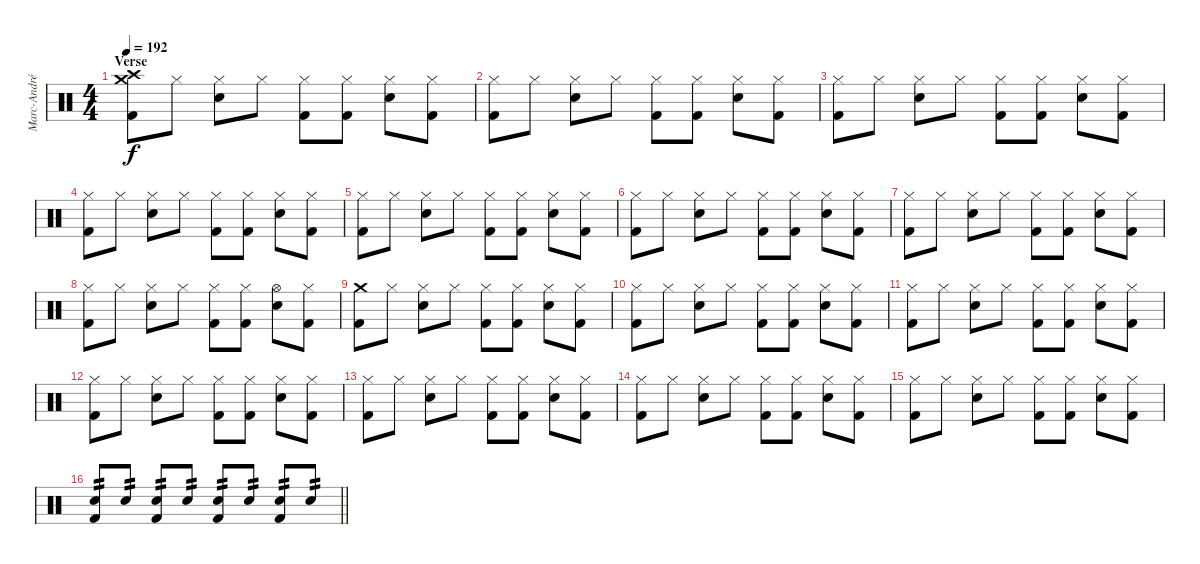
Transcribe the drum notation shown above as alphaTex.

\track ("Marc-André Barabé" "Marc-André") {instrument percussion}
\staff {score}
\articulation defaults
\ts (4 4)
\section ("" "Verse")
\tempo 192
\clef neutral
\ks c
("Crash high (hit)" "Crash medium (hit)" "Kick (hit) 2").8{dy f} "Hi-Hat (closed)".8 ("Hi-Hat (closed)" "Electric Snare (hit)").8 "Hi-Hat (closed)".8 ("Hi-Hat (closed)" "Kick (hit) 2").8 ("Hi-Hat (closed)" "Kick (hit) 2").8 ("Hi-Hat (closed)" "Electric Snare (hit)").8 ("Hi-Hat (closed)" "Kick (hit) 2").8 |
("Hi-Hat (closed)" "Kick (hit) 2").8 "Hi-Hat (closed)".8 ("Hi-Hat (closed)" "Electric Snare (hit)").8 "Hi-Hat (closed)".8 ("Hi-Hat (closed)" "Kick (hit) 2").8 ("Hi-Hat (closed)" "Kick (hit) 2").8 ("Hi-Hat (closed)" "Electric Snare (hit)").8 ("Hi-Hat (closed)" "Kick (hit) 2").8 |
("Hi-Hat (closed)" "Kick (hit) 2").8 "Hi-Hat (closed)".8 ("Hi-Hat (closed)" "Electric Snare (hit)").8 "Hi-Hat (closed)".8 ("Hi-Hat (closed)" "Kick (hit) 2").8 ("Hi-Hat (closed)" "Kick (hit) 2").8 ("Hi-Hat (closed)" "Electric Snare (hit)").8 ("Hi-Hat (closed)" "Kick (hit) 2").8 |
("Hi-Hat (closed)" "Kick (hit) 2").8 "Hi-Hat (closed)".8 ("Hi-Hat (closed)" "Electric Snare (hit)").8 "Hi-Hat (closed)".8 ("Hi-Hat (closed)" "Kick (hit) 2").8 ("Hi-Hat (closed)" "Kick (hit) 2").8 ("Hi-Hat (closed)" "Electric Snare (hit)").8 ("Hi-Hat (closed)" "Kick (hit) 2").8 |
("Hi-Hat (closed)" "Kick (hit) 2").8 "Hi-Hat (closed)".8 ("Hi-Hat (closed)" "Electric Snare (hit)").8 "Hi-Hat (closed)".8 ("Hi-Hat (closed)" "Kick (hit) 2").8 ("Hi-Hat (closed)" "Kick (hit) 2").8 ("Hi-Hat (closed)" "Electric Snare (hit)").8 ("Hi-Hat (closed)" "Kick (hit) 2").8 |
("Hi-Hat (closed)" "Kick (hit) 2").8 "Hi-Hat (closed)".8 ("Hi-Hat (closed)" "Electric Snare (hit)").8 "Hi-Hat (closed)".8 ("Hi-Hat (closed)" "Kick (hit) 2").8 ("Hi-Hat (closed)" "Kick (hit) 2").8 ("Hi-Hat (closed)" "Electric Snare (hit)").8 ("Hi-Hat (closed)" "Kick (hit) 2").8 |
("Hi-Hat (closed)" "Kick (hit) 2").8 "Hi-Hat (closed)".8 ("Hi-Hat (closed)" "Electric Snare (hit)").8 "Hi-Hat (closed)".8 ("Hi-Hat (closed)" "Kick (hit) 2").8 ("Hi-Hat (closed)" "Kick (hit) 2").8 ("Hi-Hat (closed)" "Electric Snare (hit)").8 ("Hi-Hat (closed)" "Kick (hit) 2").8 |
("Hi-Hat (closed)" "Kick (hit) 2").8 "Hi-Hat (closed)".8 ("Hi-Hat (closed)" "Electric Snare (hit)").8 "Hi-Hat (closed)".8 ("Hi-Hat (closed)" "Kick (hit) 2").8 ("Hi-Hat (closed)" "Kick (hit) 2").8 ("Hi-Hat (open)" "Electric Snare (hit)").8 ("Hi-Hat (closed)" "Kick (hit) 2").8 |
("Crash medium (hit)" "Kick (hit) 2").8 "Hi-Hat (closed)".8 ("Hi-Hat (closed)" "Electric Snare (hit)").8 "Hi-Hat (closed)".8 ("Hi-Hat (closed)" "Kick (hit) 2").8 ("Hi-Hat (closed)" "Kick (hit) 2").8 ("Hi-Hat (closed)" "Electric Snare (hit)").8 ("Hi-Hat (closed)" "Kick (hit) 2").8 |
("Hi-Hat (closed)" "Kick (hit) 2").8 "Hi-Hat (closed)".8 ("Hi-Hat (closed)" "Electric Snare (hit)").8 "Hi-Hat (closed)".8 ("Hi-Hat (closed)" "Kick (hit) 2").8 ("Hi-Hat (closed)" "Kick (hit) 2").8 ("Hi-Hat (closed)" "Electric Snare (hit)").8 ("Hi-Hat (closed)" "Kick (hit) 2").8 |
("Hi-Hat (closed)" "Kick (hit) 2").8 "Hi-Hat (closed)".8 ("Hi-Hat (closed)" "Electric Snare (hit)").8 "Hi-Hat (closed)".8 ("Hi-Hat (closed)" "Kick (hit) 2").8 ("Hi-Hat (closed)" "Kick (hit) 2").8 ("Hi-Hat (closed)" "Electric Snare (hit)").8 ("Hi-Hat (closed)" "Kick (hit) 2").8 |
("Hi-Hat (closed)" "Kick (hit) 2").8 "Hi-Hat (closed)".8 ("Hi-Hat (closed)" "Electric Snare (hit)").8 "Hi-Hat (closed)".8 ("Hi-Hat (closed)" "Kick (hit) 2").8 ("Hi-Hat (closed)" "Kick (hit) 2").8 ("Hi-Hat (closed)" "Electric Snare (hit)").8 ("Hi-Hat (closed)" "Kick (hit) 2").8 |
("Hi-Hat (closed)" "Kick (hit) 2").8 "Hi-Hat (closed)".8 ("Hi-Hat (closed)" "Electric Snare (hit)").8 "Hi-Hat (closed)".8 ("Hi-Hat (closed)" "Kick (hit) 2").8 ("Hi-Hat (closed)" "Kick (hit) 2").8 ("Hi-Hat (closed)" "Electric Snare (hit)").8 ("Hi-Hat (closed)" "Kick (hit) 2").8 |
("Hi-Hat (closed)" "Kick (hit) 2").8 "Hi-Hat (closed)".8 ("Hi-Hat (closed)" "Electric Snare (hit)").8 "Hi-Hat (closed)".8 ("Hi-Hat (closed)" "Kick (hit) 2").8 ("Hi-Hat (closed)" "Kick (hit) 2").8 ("Hi-Hat (closed)" "Electric Snare (hit)").8 ("Hi-Hat (closed)" "Kick (hit) 2").8 |
("Hi-Hat (closed)" "Kick (hit) 2").8 "Hi-Hat (closed)".8 ("Hi-Hat (closed)" "Electric Snare (hit)").8 "Hi-Hat (closed)".8 ("Hi-Hat (closed)" "Kick (hit) 2").8 ("Hi-Hat (closed)" "Kick (hit) 2").8 ("Hi-Hat (closed)" "Electric Snare (hit)").8 ("Hi-Hat (closed)" "Kick (hit) 2").8 |
\barLineRight lightlight
("Electric Snare (hit)" "Kick (hit) 2").8{tp 2} "Electric Snare (hit)".8{tp 2} ("Electric Snare (hit)" "Kick (hit) 2").8{tp 2} "Electric Snare (hit)".8{tp 2} ("Electric Snare (hit)" "Kick (hit) 2").8{tp 2} "Electric Snare (hit)".8{tp 2} ("Electric Snare (hit)" "Kick (hit) 2").8{tp 2} "Electric Snare (hit)".8{tp 2}
